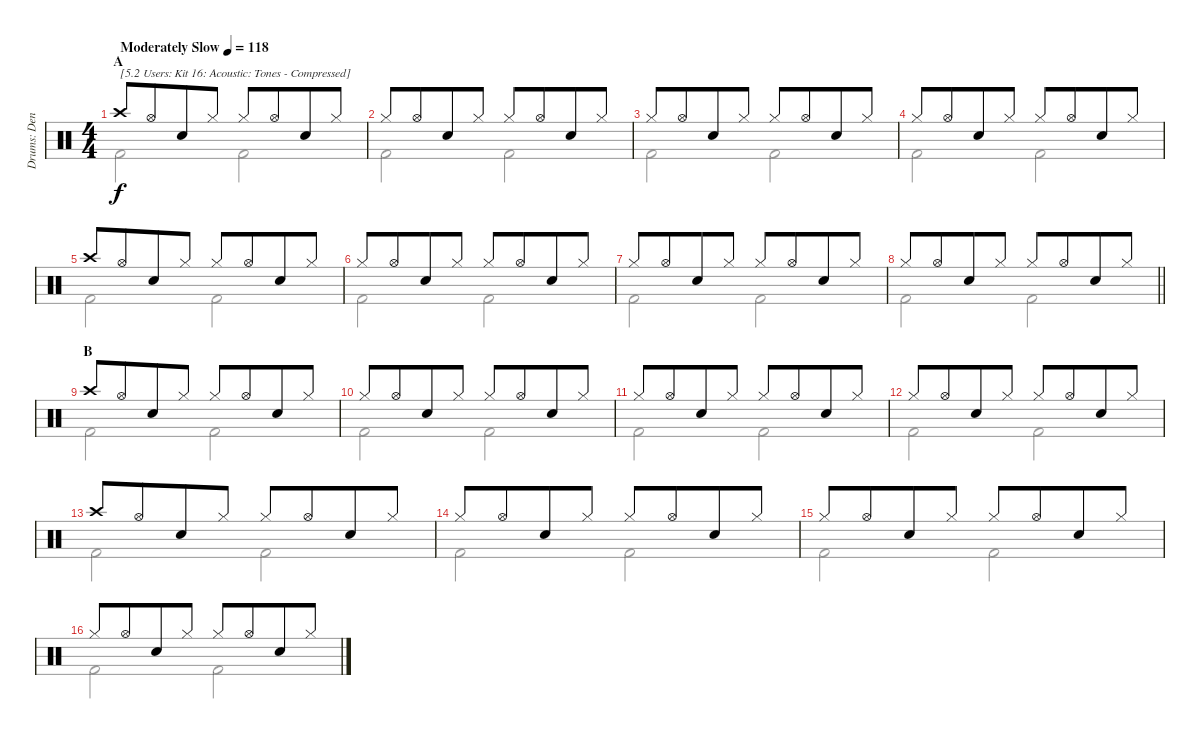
\track ("Drums: Denny" "Drums: Den") {instrument percussion}
\staff {score}
\articulation defaults
\voice
\ts (4 4)
\section ("" "A")
\tempo (118 "Moderately Slow")
\clef neutral
\ks c "Crash high (hit)".8{txt "[5.2 Users: Kit 16: Acoustic: Tones - Compressed]" dy f} "Hi-Hat (open)".8{beam merge} "Snare (hit) 2".8 "Hi-Hat (closed)".8 "Hi-Hat (closed)".8 "Hi-Hat (open)".8{beam merge} "Snare (hit) 2".8 "Hi-Hat (closed)".8
|
"Hi-Hat (closed)".8 "Hi-Hat (open)".8{beam merge} "Snare (hit) 2".8 "Hi-Hat (closed)".8 "Hi-Hat (closed)".8 "Hi-Hat (open)".8{beam merge} "Snare (hit) 2".8 "Hi-Hat (closed)".8 |
"Hi-Hat (closed)".8 "Hi-Hat (open)".8{beam merge} "Snare (hit) 2".8 "Hi-Hat (closed)".8 "Hi-Hat (closed)".8 "Hi-Hat (open)".8{beam merge} "Snare (hit) 2".8 "Hi-Hat (closed)".8 |
"Hi-Hat (closed)".8 "Hi-Hat (open)".8{beam merge} "Snare (hit) 2".8 "Hi-Hat (closed)".8 "Hi-Hat (closed)".8 "Hi-Hat (open)".8{beam merge} "Snare (hit) 2".8 "Hi-Hat (closed)".8 |
"Crash high (hit)".8 "Hi-Hat (open)".8{beam merge} "Snare (hit) 2".8 "Hi-Hat (closed)".8 "Hi-Hat (closed)".8 "Hi-Hat (open)".8{beam merge} "Snare (hit) 2".8 "Hi-Hat (closed)".8 |
"Hi-Hat (closed)".8 "Hi-Hat (open)".8{beam merge} "Snare (hit) 2".8 "Hi-Hat (closed)".8 "Hi-Hat (closed)".8 "Hi-Hat (open)".8{beam merge} "Snare (hit) 2".8 "Hi-Hat (closed)".8 |
"Hi-Hat (closed)".8 "Hi-Hat (open)".8{beam merge} "Snare (hit) 2".8 "Hi-Hat (closed)".8 "Hi-Hat (closed)".8 "Hi-Hat (open)".8{beam merge} "Snare (hit) 2".8 "Hi-Hat (closed)".8 |
\barLineRight lightlight "Hi-Hat (closed)".8 "Hi-Hat (open)".8{beam merge} "Snare (hit) 2".8 "Hi-Hat (closed)".8 "Hi-Hat (closed)".8 "Hi-Hat (open)".8{beam merge} "Snare (hit) 2".8 "Hi-Hat (closed)".8
|
\section ("" "B")
"Crash high (hit)".8 "Hi-Hat (open)".8{beam merge} "Snare (hit) 2".8 "Hi-Hat (closed)".8 "Hi-Hat (closed)".8 "Hi-Hat (open)".8{beam merge} "Snare (hit) 2".8 "Hi-Hat (closed)".8 |
"Hi-Hat (closed)".8 "Hi-Hat (open)".8{beam merge} "Snare (hit) 2".8 "Hi-Hat (closed)".8 "Hi-Hat (closed)".8 "Hi-Hat (open)".8{beam merge} "Snare (hit) 2".8 "Hi-Hat (closed)".8 |
"Hi-Hat (closed)".8 "Hi-Hat (open)".8{beam merge} "Snare (hit) 2".8 "Hi-Hat (closed)".8 "Hi-Hat (closed)".8 "Hi-Hat (open)".8{beam merge} "Snare (hit) 2".8 "Hi-Hat (closed)".8 |
"Hi-Hat (closed)".8 "Hi-Hat (open)".8{beam merge} "Snare (hit) 2".8 "Hi-Hat (closed)".8 "Hi-Hat (closed)".8 "Hi-Hat (open)".8{beam merge} "Snare (hit) 2".8 "Hi-Hat (closed)".8 |
"Crash high (hit)".8 "Hi-Hat (open)".8{beam merge} "Snare (hit) 2".8 "Hi-Hat (closed)".8 "Hi-Hat (closed)".8 "Hi-Hat (open)".8{beam merge} "Snare (hit) 2".8 "Hi-Hat (closed)".8 |
"Hi-Hat (closed)".8 "Hi-Hat (open)".8{beam merge} "Snare (hit) 2".8 "Hi-Hat (closed)".8 "Hi-Hat (closed)".8 "Hi-Hat (open)".8{beam merge} "Snare (hit) 2".8 "Hi-Hat (closed)".8 |
"Hi-Hat (closed)".8 "Hi-Hat (open)".8{beam merge} "Snare (hit) 2".8 "Hi-Hat (closed)".8 "Hi-Hat (closed)".8 "Hi-Hat (open)".8{beam merge} "Snare (hit) 2".8 "Hi-Hat (closed)".8 |
"Hi-Hat (closed)".8 "Hi-Hat (open)".8{beam merge} "Snare (hit) 2".8 "Hi-Hat (closed)".8 "Hi-Hat (closed)".8 "Hi-Hat (open)".8{beam merge} "Snare (hit) 2".8 "Hi-Hat (closed)".8
\voice
\clef neutral
\ottava regular
\simile none
\ks c "Kick (hit) 2".2{dy f} "Kick (hit) 2".2
|
"Kick (hit) 2".2 "Kick (hit) 2".2 |
"Kick (hit) 2".2 "Kick (hit) 2".2 |
"Kick (hit) 2".2 "Kick (hit) 2".2 |
"Kick (hit) 2".2 "Kick (hit) 2".2 |
"Kick (hit) 2".2 "Kick (hit) 2".2 |
"Kick (hit) 2".2 "Kick (hit) 2".2 |
\barLineRight lightlight "Kick (hit) 2".2 "Kick (hit) 2".2
|
"Kick (hit) 2".2 "Kick (hit) 2".2 |
"Kick (hit) 2".2 "Kick (hit) 2".2 |
"Kick (hit) 2".2 "Kick (hit) 2".2 |
"Kick (hit) 2".2 "Kick (hit) 2".2 |
"Kick (hit) 2".2 "Kick (hit) 2".2 |
"Kick (hit) 2".2 "Kick (hit) 2".2 |
"Kick (hit) 2".2 "Kick (hit) 2".2 |
"Kick (hit) 2".2 "Kick (hit) 2".2
